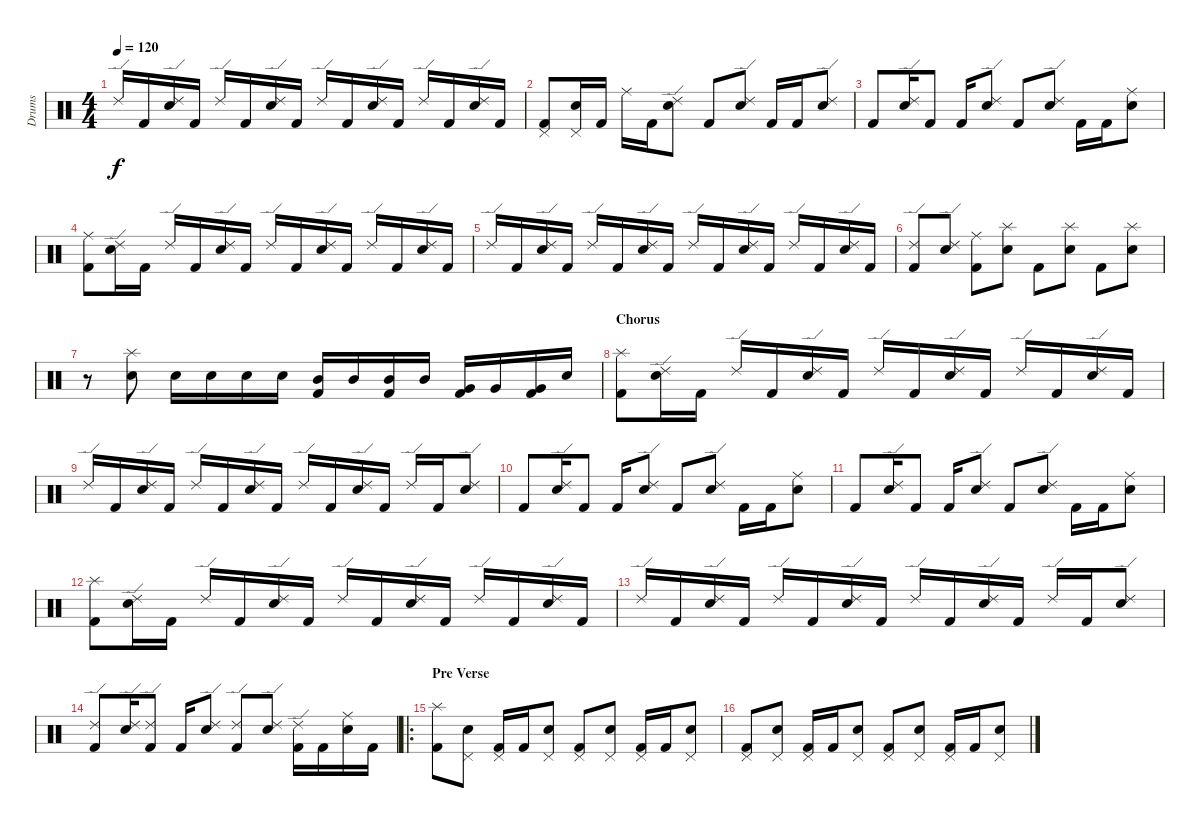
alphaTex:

\track ("Drums" "Drums") {instrument percussion}
\staff {score}
\articulation defaults
\ts (4 4)
\tempo 120
\clef neutral
\ks c "Ride (edge) 2".16{dy f} "Kick (hit) 2".16
("Ride (edge) 2" "Electric Snare (hit)").16 "Kick (hit) 2".16 "Ride (edge) 2".16 "Kick (hit) 2".16 ("Ride (edge) 2" "Electric Snare (hit)").16 "Kick (hit) 2".16 "Ride (edge) 2".16 "Kick (hit) 2".16 ("Ride (edge) 2" "Electric Snare (hit)").16 "Kick (hit) 2".16 "Ride (edge) 2".16 "Kick (hit) 2".16 ("Ride (edge) 2" "Electric Snare (hit)").16 "Kick (hit) 2".16 |
("Pedal Hi-Hat (hit)" "Kick (hit) 2").8 ("Pedal Hi-Hat (hit)" "Electric Snare (hit)").16 "Kick (hit) 2".16 "Ride (middle)".16 "Kick (hit) 2".16 ("Ride (edge) 2" "Electric Snare (hit)").8 "Kick (hit) 2".8 ("Ride (edge) 2" "Electric Snare (hit)").8 "Kick (hit) 2".16 "Kick (hit) 2".16 ("Ride (edge) 2" "Electric Snare (hit)").8 |
"Kick (hit) 2".8 ("Ride (edge) 2" "Electric Snare (hit)").16 "Kick (hit) 2".8 "Kick (hit) 2".16 ("Ride (edge) 2" "Electric Snare (hit)").8 "Kick (hit) 2".8 ("Ride (edge) 2" "Electric Snare (hit)").8 "Kick (hit) 2".16 "Kick (hit) 2".16 ("Ride (middle)" "Electric Snare (hit)").8 |
("Ride (middle)" "Kick (hit) 2").8 ("Ride (edge) 2" "Electric Snare (hit)").16 "Kick (hit) 2".16 "Ride (edge) 2".16 "Kick (hit) 2".16 ("Ride (edge) 2" "Electric Snare (hit)").16 "Kick (hit) 2".16 "Ride (edge) 2".16 "Kick (hit) 2".16 ("Ride (edge) 2" "Electric Snare (hit)").16 "Kick (hit) 2".16 "Ride (edge) 2".16 "Kick (hit) 2".16 ("Ride (edge) 2" "Electric Snare (hit)").16 "Kick (hit) 2".16 |
"Ride (edge) 2".16 "Kick (hit) 2".16 ("Ride (edge) 2" "Electric Snare (hit)").16 "Kick (hit) 2".16 "Ride (edge) 2".16 "Kick (hit) 2".16 ("Ride (edge) 2" "Electric Snare (hit)").16 "Kick (hit) 2".16 "Ride (edge) 2".16 "Kick (hit) 2".16 ("Ride (edge) 2" "Electric Snare (hit)").16 "Kick (hit) 2".16 "Ride (edge) 2".16 "Kick (hit) 2".16 ("Ride (edge) 2" "Electric Snare (hit)").16 "Kick (hit) 2".16 |
("Ride (edge) 2" "Kick (hit) 2").8 ("Ride (edge) 2" "Electric Snare (hit)").8 ("Ride (middle)" "Kick (hit) 2").8 ("Splash (hit)" "Electric Snare (hit)").8 "Kick (hit) 2".8 ("Splash (hit)" "Electric Snare (hit)").8 "Kick (hit) 2".8 ("Splash (hit)" "Electric Snare (hit)").8 |
r.8 ("Splash (hit)" "Electric Snare (hit)").8 "Electric Snare (hit)".16 "Electric Snare (hit)".16 "Electric Snare (hit)".16 "Electric Snare (hit)".16 ("Mid Tom (hit)" "Kick (hit) 2").16 "Mid Tom (hit)".16 ("Mid Tom (hit)" "Kick (hit) 2").16 "Mid Tom (hit)".16 ("Very Low Tom (hit)" "Kick (hit) 2").16 "Very Low Tom (hit)".16 ("Very Low Tom (hit)" "Kick (hit) 2").16 "Electric Snare (hit)".16 |
\section ("" "Chorus")
("Splash (hit)" "Kick (hit) 2").8 ("Ride (edge) 2" "Electric Snare (hit)").16 "Kick (hit) 2".16 "Ride (edge) 2".16 "Kick (hit) 2".16 ("Ride (edge) 2" "Electric Snare (hit)").16 "Kick (hit) 2".16 "Ride (edge) 2".16 "Kick (hit) 2".16 ("Ride (edge) 2" "Electric Snare (hit)").16 "Kick (hit) 2".16 "Ride (edge) 2".16 "Kick (hit) 2".16 ("Ride (edge) 2" "Electric Snare (hit)").16 "Kick (hit) 2".16 |
"Ride (edge) 2".16 "Kick (hit) 2".16 ("Ride (edge) 2" "Electric Snare (hit)").16 "Kick (hit) 2".16 "Ride (edge) 2".16 "Kick (hit) 2".16 ("Ride (edge) 2" "Electric Snare (hit)").16 "Kick (hit) 2".16 "Ride (edge) 2".16 "Kick (hit) 2".16 ("Ride (edge) 2" "Electric Snare (hit)").16 "Kick (hit) 2".16 "Ride (edge) 2".16 "Kick (hit) 2".16 ("Ride (edge) 2" "Electric Snare (hit)").8 |
"Kick (hit) 2".8 ("Ride (edge) 2" "Electric Snare (hit)").16 "Kick (hit) 2".8 "Kick (hit) 2".16 ("Ride (edge) 2" "Electric Snare (hit)").8 "Kick (hit) 2".8 ("Ride (edge) 2" "Electric Snare (hit)").8 "Kick (hit) 2".16 "Kick (hit) 2".16 ("Ride (middle)" "Electric Snare (hit)").8 |
"Kick (hit) 2".8 ("Ride (edge) 2" "Electric Snare (hit)").16 "Kick (hit) 2".8 "Kick (hit) 2".16 ("Ride (edge) 2" "Electric Snare (hit)").8 "Kick (hit) 2".8 ("Ride (edge) 2" "Electric Snare (hit)").8 "Kick (hit) 2".16 "Kick (hit) 2".16 ("Ride (middle)" "Electric Snare (hit)").8 |
("Splash (hit)" "Kick (hit) 2").8 ("Ride (edge) 2" "Electric Snare (hit)").16 "Kick (hit) 2".16 "Ride (edge) 2".16 "Kick (hit) 2".16 ("Ride (edge) 2" "Electric Snare (hit)").16 "Kick (hit) 2".16 "Ride (edge) 2".16 "Kick (hit) 2".16 ("Ride (edge) 2" "Electric Snare (hit)").16 "Kick (hit) 2".16 "Ride (edge) 2".16 "Kick (hit) 2".16 ("Ride (edge) 2" "Electric Snare (hit)").16 "Kick (hit) 2".16 |
"Ride (edge) 2".16 "Kick (hit) 2".16 ("Ride (edge) 2" "Electric Snare (hit)").16 "Kick (hit) 2".16 "Ride (edge) 2".16 "Kick (hit) 2".16 ("Ride (edge) 2" "Electric Snare (hit)").16 "Kick (hit) 2".16 "Ride (edge) 2".16 "Kick (hit) 2".16 ("Ride (edge) 2" "Electric Snare (hit)").16 "Kick (hit) 2".16 "Ride (edge) 2".16 "Kick (hit) 2".16 ("Ride (edge) 2" "Electric Snare (hit)").8 |
("Ride (edge) 2" "Kick (hit) 2").8 ("Ride (edge) 2" "Electric Snare (hit)").16 ("Ride (edge) 2" "Kick (hit) 2").8 "Kick (hit) 2".16 ("Ride (edge) 2" "Electric Snare (hit)").8 ("Ride (edge) 2" "Kick (hit) 2").8 ("Ride (edge) 2" "Electric Snare (hit)").8 ("Ride (edge) 2" "Kick (hit) 2").16 "Kick (hit) 2".16 ("Ride (middle)" "Electric Snare (hit)").16 "Kick (hit) 2".16 |
\ro
\section ("" "Pre Verse")
("Splash (hit)" "Kick (hit) 2").8 ("Pedal Hi-Hat (hit)" "Electric Snare (hit)").8 ("Pedal Hi-Hat (hit)" "Kick (hit) 2").16 "Kick (hit) 2".16 ("Pedal Hi-Hat (hit)" "Electric Snare (hit)").8 ("Pedal Hi-Hat (hit)" "Kick (hit) 2").8 ("Pedal Hi-Hat (hit)" "Electric Snare (hit)").8 ("Pedal Hi-Hat (hit)" "Kick (hit) 2").16 "Kick (hit) 2".16 ("Pedal Hi-Hat (hit)" "Electric Snare (hit)").8 |
("Pedal Hi-Hat (hit)" "Kick (hit) 2").8 ("Pedal Hi-Hat (hit)" "Electric Snare (hit)").8 ("Pedal Hi-Hat (hit)" "Kick (hit) 2").16 "Kick (hit) 2".16 ("Pedal Hi-Hat (hit)" "Electric Snare (hit)").8 ("Pedal Hi-Hat (hit)" "Kick (hit) 2").8 ("Pedal Hi-Hat (hit)" "Electric Snare (hit)").8 ("Pedal Hi-Hat (hit)" "Kick (hit) 2").16 "Kick (hit) 2".16 ("Pedal Hi-Hat (hit)" "Electric Snare (hit)").8
